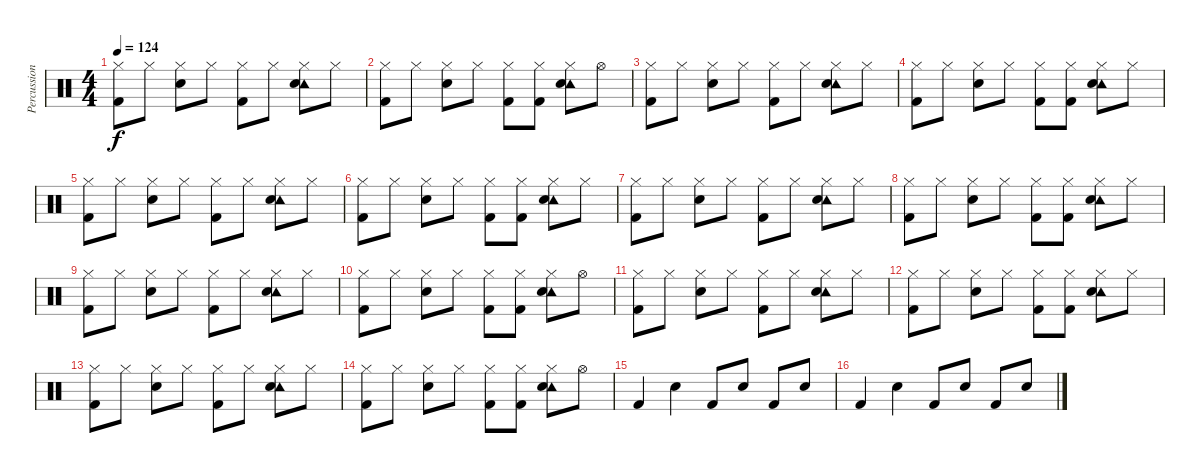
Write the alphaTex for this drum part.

\track ("Percussion" "Percussion") {instrument percussion}
\staff {score}
\articulation defaults
\ts (4 4)
\tempo 124
\clef neutral
\ks c
("Hi-Hat (closed)" "Kick (hit) 2").8{dy f} "Hi-Hat (closed)".8 ("Hi-Hat (closed)" "Snare (hit) 2").8 "Hi-Hat (closed)".8 ("Hi-Hat (closed)" "Kick (hit) 2").8 "Hi-Hat (closed)".8 ("Hi-Hat (closed)" "Tambourine (hit)" "Snare (hit) 2").8 "Hi-Hat (closed)".8 |
("Hi-Hat (closed)" "Kick (hit) 2").8 "Hi-Hat (closed)".8 ("Hi-Hat (closed)" "Snare (hit) 2").8 "Hi-Hat (closed)".8 ("Hi-Hat (closed)" "Kick (hit) 2").8 ("Hi-Hat (closed)" "Kick (hit) 2").8 ("Hi-Hat (closed)" "Tambourine (hit)" "Snare (hit) 2").8 "Hi-Hat (open)".8 |
("Hi-Hat (closed)" "Kick (hit) 2").8 "Hi-Hat (closed)".8 ("Hi-Hat (closed)" "Snare (hit) 2").8 "Hi-Hat (closed)".8 ("Hi-Hat (closed)" "Kick (hit) 2").8 "Hi-Hat (closed)".8 ("Hi-Hat (closed)" "Tambourine (hit)" "Snare (hit) 2").8 "Hi-Hat (closed)".8 |
("Hi-Hat (closed)" "Kick (hit) 2").8 "Hi-Hat (closed)".8 ("Hi-Hat (closed)" "Snare (hit) 2").8 "Hi-Hat (closed)".8 ("Hi-Hat (closed)" "Kick (hit) 2").8 ("Hi-Hat (closed)" "Kick (hit) 2").8 ("Hi-Hat (closed)" "Tambourine (hit)" "Snare (hit) 2").8 "Hi-Hat (closed)".8 |
("Hi-Hat (closed)" "Kick (hit) 2").8 "Hi-Hat (closed)".8 ("Hi-Hat (closed)" "Snare (hit) 2").8 "Hi-Hat (closed)".8 ("Hi-Hat (closed)" "Kick (hit) 2").8 "Hi-Hat (closed)".8 ("Hi-Hat (closed)" "Tambourine (hit)" "Snare (hit) 2").8 "Hi-Hat (closed)".8 |
("Hi-Hat (closed)" "Kick (hit) 2").8 "Hi-Hat (closed)".8 ("Hi-Hat (closed)" "Snare (hit) 2").8 "Hi-Hat (closed)".8 ("Hi-Hat (closed)" "Kick (hit) 2").8 ("Hi-Hat (closed)" "Kick (hit) 2").8 ("Hi-Hat (closed)" "Tambourine (hit)" "Snare (hit) 2").8 "Hi-Hat (closed)".8 |
("Hi-Hat (closed)" "Kick (hit) 2").8 "Hi-Hat (closed)".8 ("Hi-Hat (closed)" "Snare (hit) 2").8 "Hi-Hat (closed)".8 ("Hi-Hat (closed)" "Kick (hit) 2").8 "Hi-Hat (closed)".8 ("Hi-Hat (closed)" "Tambourine (hit)" "Snare (hit) 2").8 "Hi-Hat (closed)".8 |
("Hi-Hat (closed)" "Kick (hit) 2").8 "Hi-Hat (closed)".8 ("Hi-Hat (closed)" "Snare (hit) 2").8 "Hi-Hat (closed)".8 ("Hi-Hat (closed)" "Kick (hit) 2").8 ("Hi-Hat (closed)" "Kick (hit) 2").8 ("Hi-Hat (closed)" "Tambourine (hit)" "Snare (hit) 2").8 "Hi-Hat (closed)".8 |
("Hi-Hat (closed)" "Kick (hit) 2").8 "Hi-Hat (closed)".8 ("Hi-Hat (closed)" "Snare (hit) 2").8 "Hi-Hat (closed)".8 ("Hi-Hat (closed)" "Kick (hit) 2").8 "Hi-Hat (closed)".8 ("Hi-Hat (closed)" "Tambourine (hit)" "Snare (hit) 2").8 "Hi-Hat (closed)".8 |
("Hi-Hat (closed)" "Kick (hit) 2").8 "Hi-Hat (closed)".8 ("Hi-Hat (closed)" "Snare (hit) 2").8 "Hi-Hat (closed)".8 ("Hi-Hat (closed)" "Kick (hit) 2").8 ("Hi-Hat (closed)" "Kick (hit) 2").8 ("Hi-Hat (closed)" "Tambourine (hit)" "Snare (hit) 2").8 "Hi-Hat (open)".8 |
("Hi-Hat (closed)" "Kick (hit) 2").8 "Hi-Hat (closed)".8 ("Hi-Hat (closed)" "Snare (hit) 2").8 "Hi-Hat (closed)".8 ("Hi-Hat (closed)" "Kick (hit) 2").8 "Hi-Hat (closed)".8 ("Hi-Hat (closed)" "Tambourine (hit)" "Snare (hit) 2").8 "Hi-Hat (closed)".8 |
("Hi-Hat (closed)" "Kick (hit) 2").8 "Hi-Hat (closed)".8 ("Hi-Hat (closed)" "Snare (hit) 2").8 "Hi-Hat (closed)".8 ("Hi-Hat (closed)" "Kick (hit) 2").8 ("Hi-Hat (closed)" "Kick (hit) 2").8 ("Hi-Hat (closed)" "Tambourine (hit)" "Snare (hit) 2").8 "Hi-Hat (closed)".8 |
("Hi-Hat (closed)" "Kick (hit) 2").8 "Hi-Hat (closed)".8 ("Hi-Hat (closed)" "Snare (hit) 2").8 "Hi-Hat (closed)".8 ("Hi-Hat (closed)" "Kick (hit) 2").8 "Hi-Hat (closed)".8 ("Hi-Hat (closed)" "Tambourine (hit)" "Snare (hit) 2").8 "Hi-Hat (closed)".8 |
("Hi-Hat (closed)" "Kick (hit) 2").8 "Hi-Hat (closed)".8 ("Hi-Hat (closed)" "Snare (hit) 2").8 "Hi-Hat (closed)".8 ("Hi-Hat (closed)" "Kick (hit) 2").8 ("Hi-Hat (closed)" "Kick (hit) 2").8 ("Hi-Hat (closed)" "Tambourine (hit)" "Snare (hit) 2").8 "Hi-Hat (open)".8 |
"Kick (hit) 2".4 "Snare (hit) 2".4 "Kick (hit) 2".8 "Snare (hit) 2".8 "Kick (hit) 2".8 "Snare (hit) 2".8 |
"Kick (hit) 2".4 "Snare (hit) 2".4 "Kick (hit) 2".8 "Snare (hit) 2".8 "Kick (hit) 2".8 "Snare (hit) 2".8
